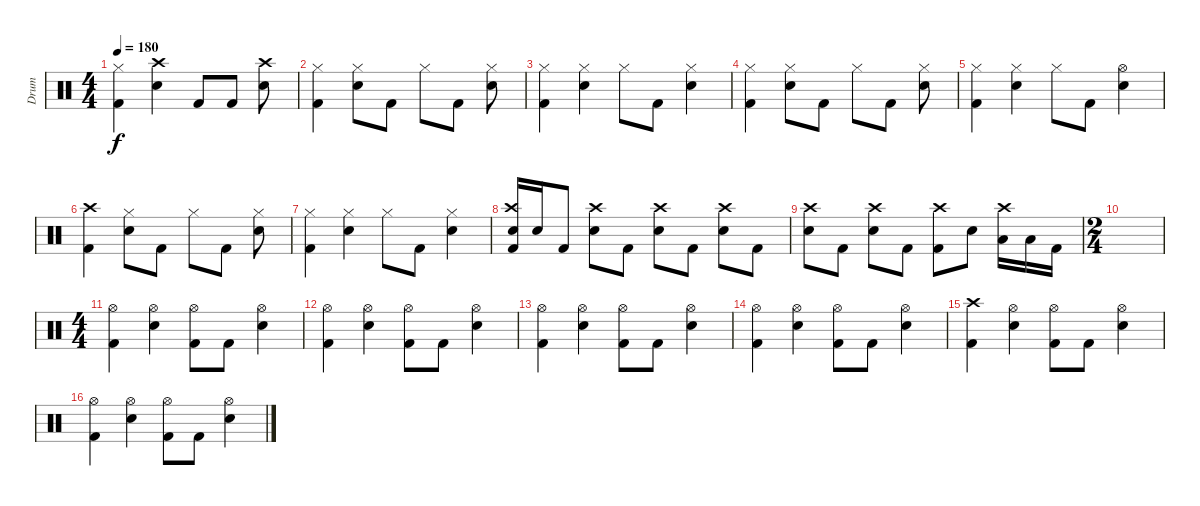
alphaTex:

\track ("Drum" "Drum") {instrument percussion}
\staff {score}
\articulation defaults
\ts (4 4)
\tempo 180
\clef neutral
\ks c
("Hi-Hat (closed)" "Kick (hit) 2").4{dy f} ("Crash high (hit)" "Electric Snare (hit)").4 "Kick (hit) 2".8 "Kick (hit) 2".8 ("Crash high (hit)" "Electric Snare (hit)").8 |
("Hi-Hat (closed)" "Kick (hit) 2").4 ("Hi-Hat (closed)" "Electric Snare (hit)").8 "Kick (hit) 2".8 "Hi-Hat (closed)".8 "Kick (hit) 2".8 ("Hi-Hat (closed)" "Electric Snare (hit)").8 |
("Hi-Hat (closed)" "Kick (hit) 2").4 ("Hi-Hat (closed)" "Electric Snare (hit)").4 "Hi-Hat (closed)".8 "Kick (hit) 2".8 ("Hi-Hat (closed)" "Electric Snare (hit)").4 |
("Hi-Hat (closed)" "Kick (hit) 2").4 ("Hi-Hat (closed)" "Electric Snare (hit)").8 "Kick (hit) 2".8 "Hi-Hat (closed)".8 "Kick (hit) 2".8 ("Hi-Hat (closed)" "Electric Snare (hit)").8 |
("Hi-Hat (closed)" "Kick (hit) 2").4 ("Hi-Hat (closed)" "Electric Snare (hit)").4 "Hi-Hat (closed)".8 "Kick (hit) 2".8 ("Hi-Hat (open)" "Electric Snare (hit)").4 |
("Crash high (hit)" "Kick (hit) 2").4 ("Hi-Hat (closed)" "Electric Snare (hit)").8 "Kick (hit) 2".8 "Hi-Hat (closed)".8 "Kick (hit) 2".8 ("Hi-Hat (closed)" "Electric Snare (hit)").8 |
("Hi-Hat (closed)" "Kick (hit) 2").4 ("Hi-Hat (closed)" "Electric Snare (hit)").4 "Hi-Hat (closed)".8 "Kick (hit) 2".8 ("Hi-Hat (closed)" "Electric Snare (hit)").4 |
("Crash high (hit)" "Electric Snare (hit)" "Kick (hit) 2").16 "Electric Snare (hit)".16 "Kick (hit) 2".8 ("Crash high (hit)" "Electric Snare (hit)").8 "Kick (hit) 2".8 ("Crash high (hit)" "Electric Snare (hit)").8 "Kick (hit) 2".8 ("Crash high (hit)" "Electric Snare (hit)").8 "Kick (hit) 2".8 |
("Crash high (hit)" "Electric Snare (hit)").8 "Kick (hit) 2".8 ("Crash high (hit)" "Electric Snare (hit)").8 "Kick (hit) 2".8 ("Crash high (hit)" "Kick (hit) 2").8 "Electric Snare (hit)".8 ("Crash high (hit)" "Low Tom (hit)").16 "Low Tom (hit)".16 "Kick (hit) 2".16 |
\ts (2 4)
|
\ts (4 4)
("Hi-Hat (open)" "Kick (hit) 2").4 ("Hi-Hat (open)" "Electric Snare (hit)").4 ("Hi-Hat (open)" "Kick (hit) 2").8 "Kick (hit) 2".8 ("Hi-Hat (open)" "Electric Snare (hit)").4 |
("Hi-Hat (open)" "Kick (hit) 2").4 ("Hi-Hat (open)" "Electric Snare (hit)").4 ("Hi-Hat (open)" "Kick (hit) 2").8 "Kick (hit) 2".8 ("Hi-Hat (open)" "Electric Snare (hit)").4 |
("Hi-Hat (open)" "Kick (hit) 2").4 ("Hi-Hat (open)" "Electric Snare (hit)").4 ("Hi-Hat (open)" "Kick (hit) 2").8 "Kick (hit) 2".8 ("Hi-Hat (open)" "Electric Snare (hit)").4 |
("Hi-Hat (open)" "Kick (hit) 2").4 ("Hi-Hat (open)" "Electric Snare (hit)").4 ("Hi-Hat (open)" "Kick (hit) 2").8 "Kick (hit) 2".8 ("Hi-Hat (open)" "Electric Snare (hit)").4 |
("Crash high (hit)" "Kick (hit) 2").4 ("Hi-Hat (open)" "Electric Snare (hit)").4 ("Hi-Hat (open)" "Kick (hit) 2").8 "Kick (hit) 2".8 ("Hi-Hat (open)" "Electric Snare (hit)").4 |
("Hi-Hat (open)" "Kick (hit) 2").4 ("Hi-Hat (open)" "Electric Snare (hit)").4 ("Hi-Hat (open)" "Kick (hit) 2").8 "Kick (hit) 2".8 ("Hi-Hat (open)" "Electric Snare (hit)").4
